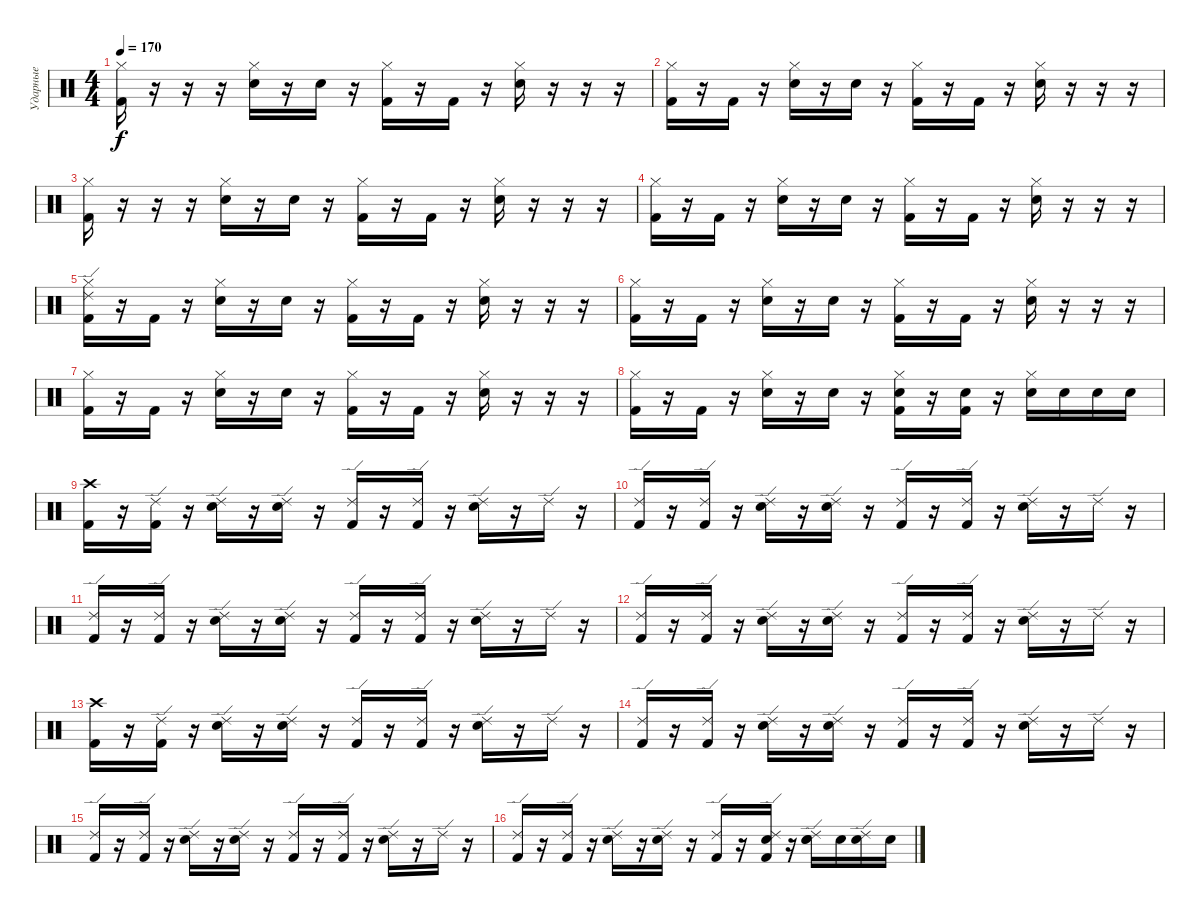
\track ("Ударные" "Ударные") {instrument percussion}
\staff {score}
\articulation defaults
\ts (4 4)
\tempo 170
\clef neutral
\ks c
("Hi-Hat (closed)" "Kick (hit) 2").16{dy f} r.16 r.16 r.16 ("Hi-Hat (closed)" "Snare (hit) 2").16 r.16 "Snare (hit) 2".16 r.16 ("Hi-Hat (closed)" "Kick (hit) 2").16 r.16 "Kick (hit) 2".16 r.16 ("Hi-Hat (closed)" "Snare (hit) 2").16 r.16 r.16 r.16 |
("Hi-Hat (closed)" "Kick (hit) 2").16 r.16 "Kick (hit) 2".16 r.16 ("Hi-Hat (closed)" "Snare (hit) 2").16 r.16 "Snare (hit) 2".16 r.16 ("Hi-Hat (closed)" "Kick (hit) 2").16 r.16 "Kick (hit) 2".16 r.16 ("Hi-Hat (closed)" "Snare (hit) 2").16 r.16 r.16 r.16 |
("Hi-Hat (closed)" "Kick (hit) 2").16 r.16 r.16 r.16 ("Hi-Hat (closed)" "Snare (hit) 2").16 r.16 "Snare (hit) 2".16 r.16 ("Hi-Hat (closed)" "Kick (hit) 2").16 r.16 "Kick (hit) 2".16 r.16 ("Hi-Hat (closed)" "Snare (hit) 2").16 r.16 r.16 r.16 |
("Hi-Hat (closed)" "Kick (hit) 2").16 r.16 "Kick (hit) 2".16 r.16 ("Hi-Hat (closed)" "Snare (hit) 2").16 r.16 "Snare (hit) 2".16 r.16 ("Hi-Hat (closed)" "Kick (hit) 2").16 r.16 "Kick (hit) 2".16 r.16 ("Hi-Hat (closed)" "Snare (hit) 2").16 r.16 r.16 r.16 |
("Hi-Hat (closed)" "Ride (edge) 2" "Kick (hit) 2").16 r.16 "Kick (hit) 2".16 r.16 ("Hi-Hat (closed)" "Snare (hit) 2").16 r.16 "Snare (hit) 2".16 r.16 ("Hi-Hat (closed)" "Kick (hit) 2").16 r.16 "Kick (hit) 2".16 r.16 ("Hi-Hat (closed)" "Snare (hit) 2").16 r.16 r.16 r.16 |
("Hi-Hat (closed)" "Kick (hit) 2").16 r.16 "Kick (hit) 2".16 r.16 ("Hi-Hat (closed)" "Snare (hit) 2").16 r.16 "Snare (hit) 2".16 r.16 ("Hi-Hat (closed)" "Kick (hit) 2").16 r.16 "Kick (hit) 2".16 r.16 ("Hi-Hat (closed)" "Snare (hit) 2").16 r.16 r.16 r.16 |
("Hi-Hat (closed)" "Kick (hit) 2").16 r.16 "Kick (hit) 2".16 r.16 ("Hi-Hat (closed)" "Snare (hit) 2").16 r.16 "Snare (hit) 2".16 r.16 ("Hi-Hat (closed)" "Kick (hit) 2").16 r.16 "Kick (hit) 2".16 r.16 ("Hi-Hat (closed)" "Snare (hit) 2").16 r.16 r.16 r.16 |
("Hi-Hat (closed)" "Kick (hit) 2").16 r.16 "Kick (hit) 2".16 r.16 ("Hi-Hat (closed)" "Snare (hit) 2").16 r.16 "Snare (hit) 2".16 r.16 ("Hi-Hat (closed)" "Snare (hit) 2" "Kick (hit) 2").16 r.16 ("Snare (hit) 2" "Kick (hit) 2").16 r.16 ("Hi-Hat (closed)" "Snare (hit) 2").16 "Snare (hit) 2".16 "Snare (hit) 2".16 "Snare (hit) 2".16 |
("Crash high (hit)" "Kick (hit) 2").16 r.16 ("Ride (edge) 2" "Kick (hit) 2").16 r.16 ("Ride (edge) 2" "Snare (hit) 2").16 r.16 ("Ride (edge) 2" "Snare (hit) 2").16 r.16 ("Ride (edge) 2" "Kick (hit) 2").16 r.16 ("Ride (edge) 2" "Kick (hit) 2").16 r.16 ("Ride (edge) 2" "Snare (hit) 2").16 r.16 "Ride (edge) 2".16 r.16 |
("Ride (edge) 2" "Kick (hit) 2").16 r.16 ("Ride (edge) 2" "Kick (hit) 2").16 r.16 ("Ride (edge) 2" "Snare (hit) 2").16 r.16 ("Ride (edge) 2" "Snare (hit) 2").16 r.16 ("Ride (edge) 2" "Kick (hit) 2").16 r.16 ("Ride (edge) 2" "Kick (hit) 2").16 r.16 ("Ride (edge) 2" "Snare (hit) 2").16 r.16 "Ride (edge) 2".16 r.16 |
("Ride (edge) 2" "Kick (hit) 2").16 r.16 ("Ride (edge) 2" "Kick (hit) 2").16 r.16 ("Ride (edge) 2" "Snare (hit) 2").16 r.16 ("Ride (edge) 2" "Snare (hit) 2").16 r.16 ("Ride (edge) 2" "Kick (hit) 2").16 r.16 ("Ride (edge) 2" "Kick (hit) 2").16 r.16 ("Ride (edge) 2" "Snare (hit) 2").16 r.16 "Ride (edge) 2".16 r.16 |
("Ride (edge) 2" "Kick (hit) 2").16 r.16 ("Ride (edge) 2" "Kick (hit) 2").16 r.16 ("Ride (edge) 2" "Snare (hit) 2").16 r.16 ("Ride (edge) 2" "Snare (hit) 2").16 r.16 ("Ride (edge) 2" "Kick (hit) 2").16 r.16 ("Ride (edge) 2" "Kick (hit) 2").16 r.16 ("Ride (edge) 2" "Snare (hit) 2").16 r.16 "Ride (edge) 2".16 r.16 |
("Crash high (hit)" "Kick (hit) 2").16 r.16 ("Ride (edge) 2" "Kick (hit) 2").16 r.16 ("Ride (edge) 2" "Snare (hit) 2").16 r.16 ("Ride (edge) 2" "Snare (hit) 2").16 r.16 ("Ride (edge) 2" "Kick (hit) 2").16 r.16 ("Ride (edge) 2" "Kick (hit) 2").16 r.16 ("Ride (edge) 2" "Snare (hit) 2").16 r.16 "Ride (edge) 2".16 r.16 |
("Ride (edge) 2" "Kick (hit) 2").16 r.16 ("Ride (edge) 2" "Kick (hit) 2").16 r.16 ("Ride (edge) 2" "Snare (hit) 2").16 r.16 ("Ride (edge) 2" "Snare (hit) 2").16 r.16 ("Ride (edge) 2" "Kick (hit) 2").16 r.16 ("Ride (edge) 2" "Kick (hit) 2").16 r.16 ("Ride (edge) 2" "Snare (hit) 2").16 r.16 "Ride (edge) 2".16 r.16 |
("Ride (edge) 2" "Kick (hit) 2").16 r.16 ("Ride (edge) 2" "Kick (hit) 2").16 r.16 ("Ride (edge) 2" "Snare (hit) 2").16 r.16 ("Ride (edge) 2" "Snare (hit) 2").16 r.16 ("Ride (edge) 2" "Kick (hit) 2").16 r.16 ("Ride (edge) 2" "Kick (hit) 2").16 r.16 ("Ride (edge) 2" "Snare (hit) 2").16 r.16 "Ride (edge) 2".16 r.16 |
("Ride (edge) 2" "Kick (hit) 2").16 r.16 ("Ride (edge) 2" "Kick (hit) 2").16 r.16 ("Ride (edge) 2" "Snare (hit) 2").16 r.16 ("Ride (edge) 2" "Snare (hit) 2").16 r.16 ("Ride (edge) 2" "Kick (hit) 2").16 r.16 ("Ride (edge) 2" "Snare (hit) 2" "Kick (hit) 2").16 r.16 ("Ride (edge) 2" "Snare (hit) 2" "Snare (hit) 2").16 "Snare (hit) 2".16 ("Ride (edge) 2" "Snare (hit) 2").16 "Snare (hit) 2".16
